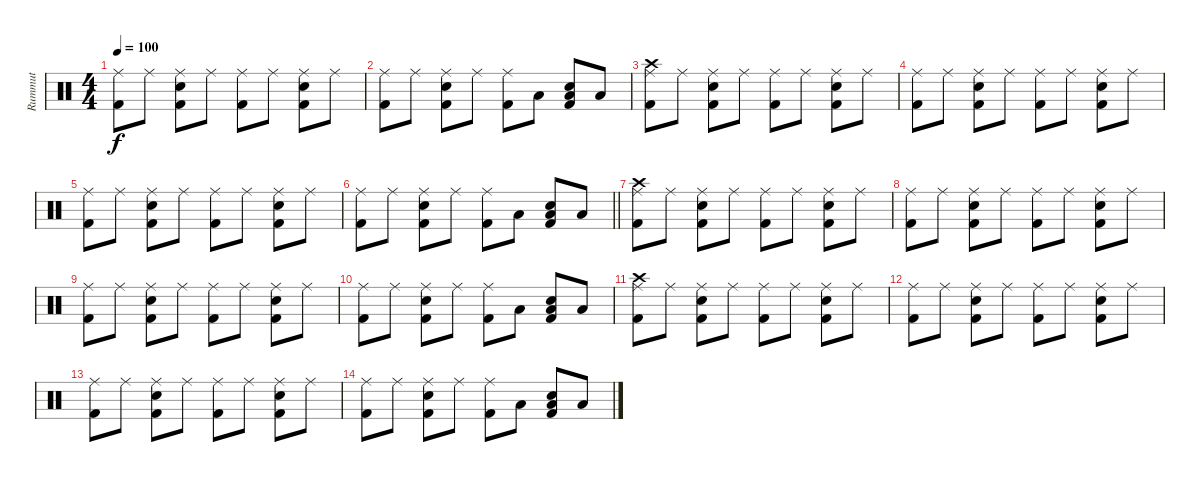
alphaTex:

\track ("Rummut" "Rummut") {instrument percussion}
\staff {score}
\articulation defaults
\ts (4 4)
\tempo 100
\clef neutral
\ks c
("Ride (middle)" "Kick (hit) 2").8{dy f} "Ride (middle)".8 ("Ride (middle)" "Snare (hit) 2" "Kick (hit) 2").8 "Ride (middle)".8 ("Ride (middle)" "Kick (hit) 2").8 "Ride (middle)".8 ("Ride (middle)" "Snare (hit) 2" "Kick (hit) 2").8 "Ride (middle)".8 |
("Ride (middle)" "Kick (hit) 2").8 "Ride (middle)".8 ("Ride (middle)" "Snare (hit) 2" "Kick (hit) 2").8 "Ride (middle)".8 ("Ride (middle)" "Kick (hit) 2").8 "Low Floor Tom (hit)".8 ("Snare (hit) 2" "Low Floor Tom (hit)" "Kick (hit) 2").8 "Low Floor Tom (hit)".8 |
("Crash high (hit)" "Ride (middle)" "Kick (hit) 2").8 "Ride (middle)".8 ("Ride (middle)" "Snare (hit) 2" "Kick (hit) 2").8 "Ride (middle)".8 ("Ride (middle)" "Kick (hit) 2").8 "Ride (middle)".8 ("Ride (middle)" "Snare (hit) 2" "Kick (hit) 2").8 "Ride (middle)".8 |
("Ride (middle)" "Kick (hit) 2").8 "Ride (middle)".8 ("Ride (middle)" "Snare (hit) 2" "Kick (hit) 2").8 "Ride (middle)".8 ("Ride (middle)" "Kick (hit) 2").8 "Ride (middle)".8 ("Ride (middle)" "Snare (hit) 2" "Kick (hit) 2").8 "Ride (middle)".8 |
("Ride (middle)" "Kick (hit) 2").8 "Ride (middle)".8 ("Ride (middle)" "Snare (hit) 2" "Kick (hit) 2").8 "Ride (middle)".8 ("Ride (middle)" "Kick (hit) 2").8 "Ride (middle)".8 ("Ride (middle)" "Snare (hit) 2" "Kick (hit) 2").8 "Ride (middle)".8 |
\barLineRight lightlight
("Ride (middle)" "Kick (hit) 2").8 "Ride (middle)".8 ("Ride (middle)" "Snare (hit) 2" "Kick (hit) 2").8 "Ride (middle)".8 ("Ride (middle)" "Kick (hit) 2").8 "Low Floor Tom (hit)".8 ("Snare (hit) 2" "Low Floor Tom (hit)" "Kick (hit) 2").8 "Low Floor Tom (hit)".8 |
("Crash high (hit)" "Ride (middle)" "Kick (hit) 2").8 "Ride (middle)".8 ("Ride (middle)" "Snare (hit) 2" "Kick (hit) 2").8 "Ride (middle)".8 ("Ride (middle)" "Kick (hit) 2").8 "Ride (middle)".8 ("Ride (middle)" "Snare (hit) 2" "Kick (hit) 2").8 "Ride (middle)".8 |
("Ride (middle)" "Kick (hit) 2").8 "Ride (middle)".8 ("Ride (middle)" "Snare (hit) 2" "Kick (hit) 2").8 "Ride (middle)".8 ("Ride (middle)" "Kick (hit) 2").8 "Ride (middle)".8 ("Ride (middle)" "Snare (hit) 2" "Kick (hit) 2").8 "Ride (middle)".8 |
("Ride (middle)" "Kick (hit) 2").8 "Ride (middle)".8 ("Ride (middle)" "Snare (hit) 2" "Kick (hit) 2").8 "Ride (middle)".8 ("Ride (middle)" "Kick (hit) 2").8 "Ride (middle)".8 ("Ride (middle)" "Snare (hit) 2" "Kick (hit) 2").8 "Ride (middle)".8 |
("Ride (middle)" "Kick (hit) 2").8 "Ride (middle)".8 ("Ride (middle)" "Snare (hit) 2" "Kick (hit) 2").8 "Ride (middle)".8 ("Ride (middle)" "Kick (hit) 2").8 "Low Floor Tom (hit)".8 ("Snare (hit) 2" "Low Floor Tom (hit)" "Kick (hit) 2").8 "Low Floor Tom (hit)".8 |
("Crash high (hit)" "Ride (middle)" "Kick (hit) 2").8 "Ride (middle)".8 ("Ride (middle)" "Snare (hit) 2" "Kick (hit) 2").8 "Ride (middle)".8 ("Ride (middle)" "Kick (hit) 2").8 "Ride (middle)".8 ("Ride (middle)" "Snare (hit) 2" "Kick (hit) 2").8 "Ride (middle)".8 |
("Ride (middle)" "Kick (hit) 2").8 "Ride (middle)".8 ("Ride (middle)" "Snare (hit) 2" "Kick (hit) 2").8 "Ride (middle)".8 ("Ride (middle)" "Kick (hit) 2").8 "Ride (middle)".8 ("Ride (middle)" "Snare (hit) 2" "Kick (hit) 2").8 "Ride (middle)".8 |
("Ride (middle)" "Kick (hit) 2").8 "Ride (middle)".8 ("Ride (middle)" "Snare (hit) 2" "Kick (hit) 2").8 "Ride (middle)".8 ("Ride (middle)" "Kick (hit) 2").8 "Ride (middle)".8 ("Ride (middle)" "Snare (hit) 2" "Kick (hit) 2").8 "Ride (middle)".8 |
("Ride (middle)" "Kick (hit) 2").8 "Ride (middle)".8 ("Ride (middle)" "Snare (hit) 2" "Kick (hit) 2").8 "Ride (middle)".8 ("Ride (middle)" "Kick (hit) 2").8 "Low Floor Tom (hit)".8 ("Snare (hit) 2" "Low Floor Tom (hit)" "Kick (hit) 2").8 "Low Floor Tom (hit)".8
